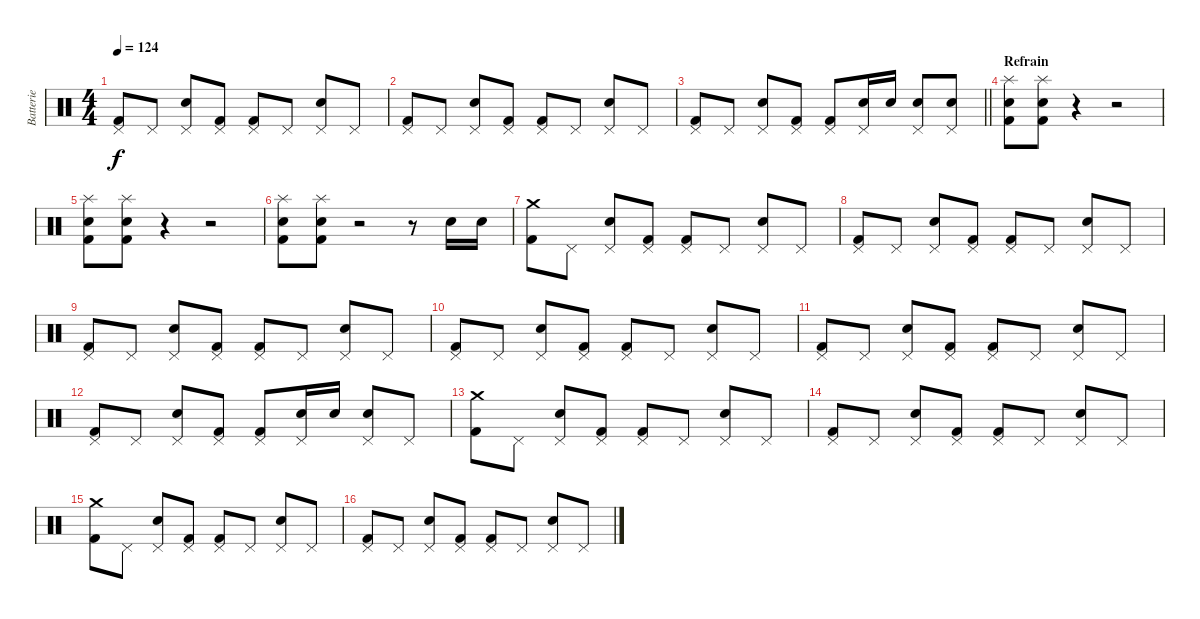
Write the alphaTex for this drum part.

\track ("Batterie" "Batterie") {instrument percussion}
\staff {score}
\articulation defaults
\ts (4 4)
\tempo 124
\clef neutral
\ks c
("Pedal Hi-Hat (hit)" "Kick (hit) 2").8{dy f} "Pedal Hi-Hat (hit)".8 ("Pedal Hi-Hat (hit)" "Electric Snare (hit)").8 ("Pedal Hi-Hat (hit)" "Kick (hit) 2").8 ("Pedal Hi-Hat (hit)" "Kick (hit) 2").8 "Pedal Hi-Hat (hit)".8 ("Pedal Hi-Hat (hit)" "Electric Snare (hit)").8 "Pedal Hi-Hat (hit)".8 |
("Pedal Hi-Hat (hit)" "Kick (hit) 2").8 "Pedal Hi-Hat (hit)".8 ("Pedal Hi-Hat (hit)" "Electric Snare (hit)").8 ("Pedal Hi-Hat (hit)" "Kick (hit) 2").8 ("Pedal Hi-Hat (hit)" "Kick (hit) 2").8 "Pedal Hi-Hat (hit)".8 ("Pedal Hi-Hat (hit)" "Electric Snare (hit)").8 "Pedal Hi-Hat (hit)".8 |
\barLineRight lightlight
("Pedal Hi-Hat (hit)" "Kick (hit) 2").8 "Pedal Hi-Hat (hit)".8 ("Pedal Hi-Hat (hit)" "Electric Snare (hit)").8 ("Pedal Hi-Hat (hit)" "Kick (hit) 2").8 ("Pedal Hi-Hat (hit)" "Kick (hit) 2").8 ("Pedal Hi-Hat (hit)" "Electric Snare (hit)").16 "Electric Snare (hit)".16 ("Pedal Hi-Hat (hit)" "Electric Snare (hit)").8 ("Pedal Hi-Hat (hit)" "Electric Snare (hit)").8 |
\section ("" "Refrain")
("Splash (hit)" "Electric Snare (hit)" "Kick (hit) 2").8 ("Splash (hit)" "Electric Snare (hit)" "Kick (hit) 2").8 r.4 r.2 |
("Splash (hit)" "Electric Snare (hit)" "Kick (hit) 2").8 ("Splash (hit)" "Electric Snare (hit)" "Kick (hit) 2").8 r.4 r.2 |
("Splash (hit)" "Electric Snare (hit)" "Kick (hit) 2").8 ("Splash (hit)" "Electric Snare (hit)" "Kick (hit) 2").8 r.2 r.8 "Electric Snare (hit)".16 "Electric Snare (hit)".16 |
("Crash medium (hit)" "Kick (hit) 2").8 "Pedal Hi-Hat (hit)".8 ("Pedal Hi-Hat (hit)" "Electric Snare (hit)").8 ("Pedal Hi-Hat (hit)" "Kick (hit) 2").8 ("Pedal Hi-Hat (hit)" "Kick (hit) 2").8 "Pedal Hi-Hat (hit)".8 ("Pedal Hi-Hat (hit)" "Electric Snare (hit)").8 "Pedal Hi-Hat (hit)".8 |
("Pedal Hi-Hat (hit)" "Kick (hit) 2").8 "Pedal Hi-Hat (hit)".8 ("Pedal Hi-Hat (hit)" "Electric Snare (hit)").8 ("Pedal Hi-Hat (hit)" "Kick (hit) 2").8 ("Pedal Hi-Hat (hit)" "Kick (hit) 2").8 "Pedal Hi-Hat (hit)".8 ("Pedal Hi-Hat (hit)" "Electric Snare (hit)").8 "Pedal Hi-Hat (hit)".8 |
("Pedal Hi-Hat (hit)" "Kick (hit) 2").8 "Pedal Hi-Hat (hit)".8 ("Pedal Hi-Hat (hit)" "Electric Snare (hit)").8 ("Pedal Hi-Hat (hit)" "Kick (hit) 2").8 ("Pedal Hi-Hat (hit)" "Kick (hit) 2").8 "Pedal Hi-Hat (hit)".8 ("Pedal Hi-Hat (hit)" "Electric Snare (hit)").8 "Pedal Hi-Hat (hit)".8 |
("Pedal Hi-Hat (hit)" "Kick (hit) 2").8 "Pedal Hi-Hat (hit)".8 ("Pedal Hi-Hat (hit)" "Electric Snare (hit)").8 ("Pedal Hi-Hat (hit)" "Kick (hit) 2").8 ("Pedal Hi-Hat (hit)" "Kick (hit) 2").8 "Pedal Hi-Hat (hit)".8 ("Pedal Hi-Hat (hit)" "Electric Snare (hit)").8 "Pedal Hi-Hat (hit)".8 |
("Pedal Hi-Hat (hit)" "Kick (hit) 2").8 "Pedal Hi-Hat (hit)".8 ("Pedal Hi-Hat (hit)" "Electric Snare (hit)").8 ("Pedal Hi-Hat (hit)" "Kick (hit) 2").8 ("Pedal Hi-Hat (hit)" "Kick (hit) 2").8 "Pedal Hi-Hat (hit)".8 ("Pedal Hi-Hat (hit)" "Electric Snare (hit)").8 "Pedal Hi-Hat (hit)".8 |
("Pedal Hi-Hat (hit)" "Kick (hit) 2").8 "Pedal Hi-Hat (hit)".8 ("Pedal Hi-Hat (hit)" "Electric Snare (hit)").8 ("Pedal Hi-Hat (hit)" "Kick (hit) 2").8 ("Pedal Hi-Hat (hit)" "Kick (hit) 2").8 ("Pedal Hi-Hat (hit)" "Electric Snare (hit)").16 "Electric Snare (hit)".16 ("Pedal Hi-Hat (hit)" "Electric Snare (hit)").8 "Pedal Hi-Hat (hit)".8 |
("Crash medium (hit)" "Kick (hit) 2").8 "Pedal Hi-Hat (hit)".8 ("Pedal Hi-Hat (hit)" "Electric Snare (hit)").8 ("Pedal Hi-Hat (hit)" "Kick (hit) 2").8 ("Pedal Hi-Hat (hit)" "Kick (hit) 2").8 "Pedal Hi-Hat (hit)".8 ("Pedal Hi-Hat (hit)" "Electric Snare (hit)").8 "Pedal Hi-Hat (hit)".8 |
("Pedal Hi-Hat (hit)" "Kick (hit) 2").8 "Pedal Hi-Hat (hit)".8 ("Pedal Hi-Hat (hit)" "Electric Snare (hit)").8 ("Pedal Hi-Hat (hit)" "Kick (hit) 2").8 ("Pedal Hi-Hat (hit)" "Kick (hit) 2").8 "Pedal Hi-Hat (hit)".8 ("Pedal Hi-Hat (hit)" "Electric Snare (hit)").8 "Pedal Hi-Hat (hit)".8 |
("Crash medium (hit)" "Kick (hit) 2").8 "Pedal Hi-Hat (hit)".8 ("Pedal Hi-Hat (hit)" "Electric Snare (hit)").8 ("Pedal Hi-Hat (hit)" "Kick (hit) 2").8 ("Pedal Hi-Hat (hit)" "Kick (hit) 2").8 "Pedal Hi-Hat (hit)".8 ("Pedal Hi-Hat (hit)" "Electric Snare (hit)").8 "Pedal Hi-Hat (hit)".8 |
("Pedal Hi-Hat (hit)" "Kick (hit) 2").8 "Pedal Hi-Hat (hit)".8 ("Pedal Hi-Hat (hit)" "Electric Snare (hit)").8 ("Pedal Hi-Hat (hit)" "Kick (hit) 2").8 ("Pedal Hi-Hat (hit)" "Kick (hit) 2").8 "Pedal Hi-Hat (hit)".8 ("Pedal Hi-Hat (hit)" "Electric Snare (hit)").8 "Pedal Hi-Hat (hit)".8
